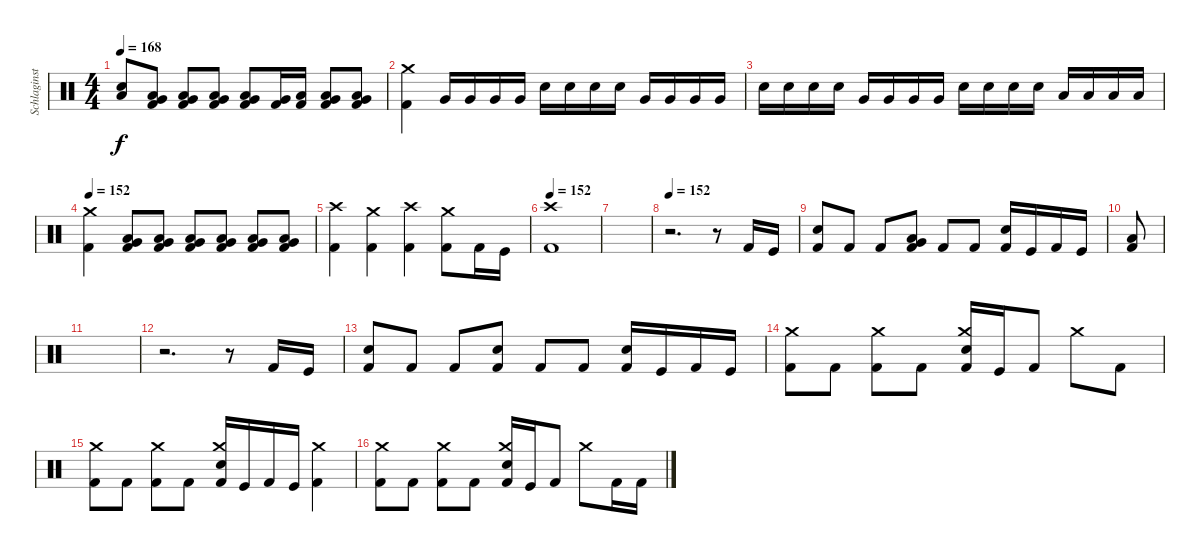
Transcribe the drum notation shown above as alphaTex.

\track ("Schlaginstrumente - Auswahl" "Schlaginst") {instrument percussion}
\staff
\articulation defaults
\ts (4 4)
\tempo 168
\clef neutral
\ks c
("Electric Snare (hit)" "Low Floor Tom (hit)").8{dy f} ("Very Low Tom (hit)" "Low Floor Tom (hit)" "Kick (hit) 2").8 ("Very Low Tom (hit)" "Low Floor Tom (hit)" "Kick (hit) 2").8 ("Very Low Tom (hit)" "Low Floor Tom (hit)" "Kick (hit) 2").8 ("Very Low Tom (hit)" "Low Floor Tom (hit)" "Kick (hit) 2").8 ("Very Low Tom (hit)" "Kick (hit) 2").16 ("Low Floor Tom (hit)" "Kick (hit) 2").16 ("Very Low Tom (hit)" "Low Floor Tom (hit)" "Kick (hit) 2").8 ("Very Low Tom (hit)" "Low Floor Tom (hit)" "Kick (hit) 2").8 |
("Crash medium (hit)" "Kick (hit) 2").4 "Very Low Tom (hit)".16 "Very Low Tom (hit)".16 "Very Low Tom (hit)".16 "Very Low Tom (hit)".16 "Electric Snare (hit)".16 "Electric Snare (hit)".16 "Electric Snare (hit)".16 "Electric Snare (hit)".16 "Very Low Tom (hit)".16 "Very Low Tom (hit)".16 "Very Low Tom (hit)".16 "Very Low Tom (hit)".16 |
"Electric Snare (hit)".16 "Electric Snare (hit)".16 "Electric Snare (hit)".16 "Electric Snare (hit)".16 "Very Low Tom (hit)".16 "Very Low Tom (hit)".16 "Very Low Tom (hit)".16 "Very Low Tom (hit)".16 "Electric Snare (hit)".16 "Electric Snare (hit)".16 "Electric Snare (hit)".16 "Electric Snare (hit)".16 "Low Floor Tom (hit)".16 "Low Floor Tom (hit)".16 "Low Floor Tom (hit)".16 "Low Floor Tom (hit)".16 |
\tempo 152
("Crash medium (hit)" "Kick (hit) 2").4 ("Very Low Tom (hit)" "Low Floor Tom (hit)" "Kick (hit) 2").8 ("Very Low Tom (hit)" "Low Floor Tom (hit)" "Kick (hit) 2").8 ("Very Low Tom (hit)" "Low Floor Tom (hit)" "Kick (hit) 2").8 ("Very Low Tom (hit)" "Low Floor Tom (hit)" "Kick (hit) 2").8 ("Very Low Tom (hit)" "Low Floor Tom (hit)" "Kick (hit) 2").8 ("Very Low Tom (hit)" "Low Floor Tom (hit)" "Kick (hit) 2").8 |
("Crash high (hit)" "Kick (hit) 2").4 ("Crash medium (hit)" "Kick (hit) 2").4 ("Crash high (hit)" "Kick (hit) 2").4 ("Crash medium (hit)" "Kick (hit) 2").8 "Kick (hit) 2".16 "Kick (hit)".16 |
\tempo 152
("Crash high (hit)" "Kick (hit) 2").1 |
|
\tempo 152
r.2{d} r.8 "Kick (hit) 2".16 "Kick (hit)".16 |
("Electric Snare (hit)" "Kick (hit) 2").8 "Kick (hit) 2".8 "Kick (hit) 2".8 ("Very Low Tom (hit)" "Low Floor Tom (hit)" "Kick (hit) 2").8 "Kick (hit) 2".8 "Kick (hit) 2".8 ("Electric Snare (hit)" "Kick (hit) 2").16 "Kick (hit)".16 "Kick (hit) 2".16 "Kick (hit)".16 |
("Low Floor Tom (hit)" "Kick (hit) 2").8 |
|
r.2{d} r.8 "Kick (hit) 2".16 "Kick (hit)".16 |
("Electric Snare (hit)" "Kick (hit) 2").8 "Kick (hit) 2".8 "Kick (hit) 2".8 ("Electric Snare (hit)" "Kick (hit) 2").8 "Kick (hit) 2".8 "Kick (hit) 2".8 ("Electric Snare (hit)" "Kick (hit) 2").16 "Kick (hit)".16 "Kick (hit) 2".16 "Kick (hit)".16 |
("Crash medium (hit)" "Kick (hit) 2").8 "Kick (hit) 2".8 ("Crash medium (hit)" "Kick (hit) 2").8 "Kick (hit) 2".8 ("Crash medium (hit)" "Snare (hit) 2" "Kick (hit) 2").16 "Kick (hit)".16 "Kick (hit) 2".8 "Crash medium (hit)".8 "Kick (hit) 2".8 |
("Crash medium (hit)" "Kick (hit) 2").8 "Kick (hit) 2".8 ("Crash medium (hit)" "Kick (hit) 2").8 "Kick (hit) 2".8 ("Crash medium (hit)" "Snare (hit) 2" "Kick (hit) 2").16 "Kick (hit)".16 "Kick (hit) 2".16 "Kick (hit)".16 ("Crash medium (hit)" "Kick (hit) 2").4 |
("Crash medium (hit)" "Kick (hit) 2").8 "Kick (hit) 2".8 ("Crash medium (hit)" "Kick (hit) 2").8 "Kick (hit) 2".8 ("Crash medium (hit)" "Snare (hit) 2" "Kick (hit) 2").16 "Kick (hit)".16 "Kick (hit) 2".8 "Crash medium (hit)".8 "Kick (hit) 2".16 "Kick (hit) 2".16
